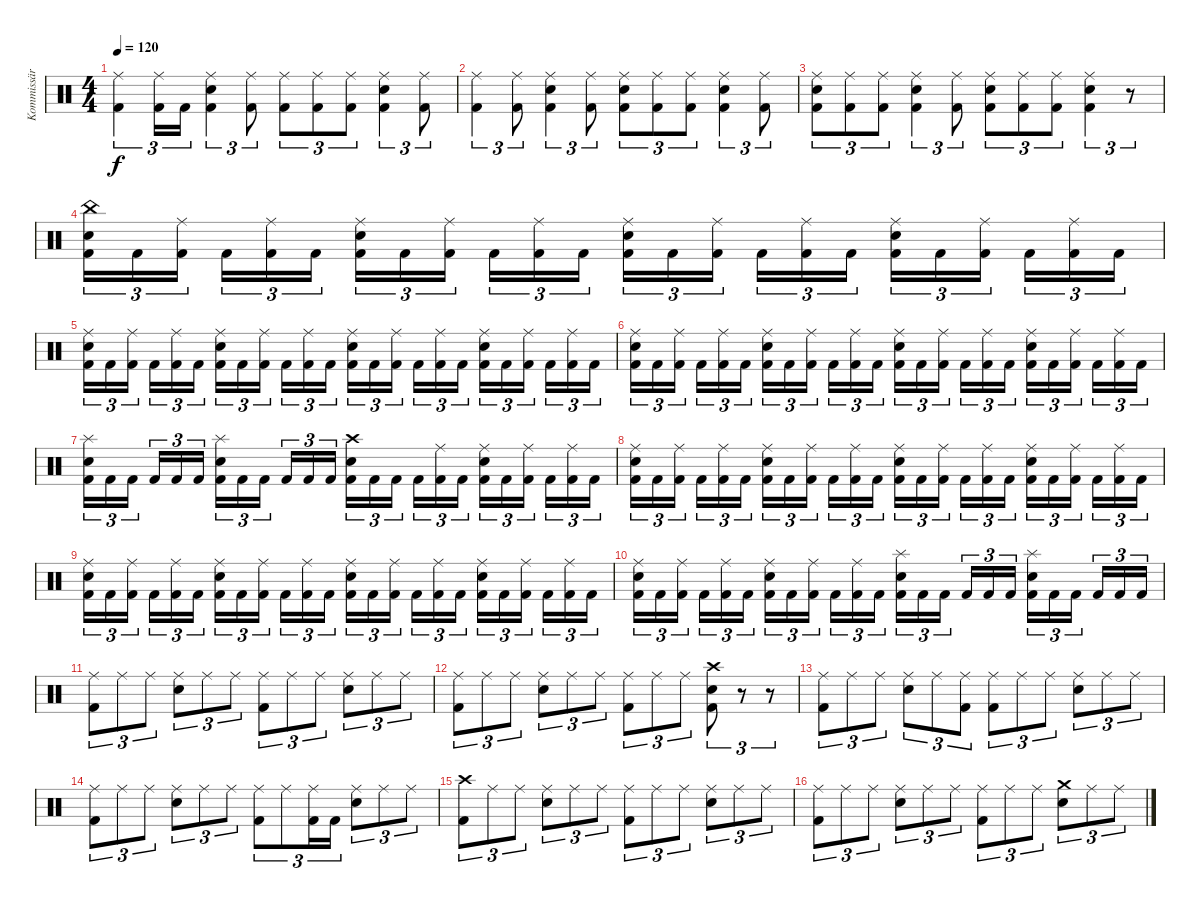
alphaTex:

\track ("Kommissär Ogrim" "Kommissär ") {instrument percussion}
\staff {score}
\articulation defaults
\ts (4 4)
\tempo 120
\clef neutral
\ks c
("Ride (middle)" "Kick (hit) 2").4{tu (3 2) dy f} ("Ride (middle)" "Kick (hit) 2").16{tu (3 2)} "Kick (hit) 2".16{tu (3 2)} ("Snare (hit) 2" "Ride (middle)" "Kick (hit) 2").4{tu (3 2)} ("Ride (middle)" "Kick (hit) 2").8{tu (3 2)} ("Ride (middle)" "Kick (hit) 2").8{tu (3 2)} ("Ride (middle)" "Kick (hit) 2").8{tu (3 2)} ("Ride (middle)" "Kick (hit) 2").8{tu (3 2)} ("Snare (hit) 2" "Ride (middle)" "Kick (hit) 2").4{tu (3 2)} ("Ride (middle)" "Kick (hit) 2").8{tu (3 2)} |
("Ride (middle)" "Kick (hit) 2").4{tu (3 2)} ("Ride (middle)" "Kick (hit) 2").8{tu (3 2)} ("Snare (hit) 2" "Ride (middle)" "Kick (hit) 2").4{tu (3 2)} ("Ride (middle)" "Kick (hit) 2").8{tu (3 2)} ("Snare (hit) 2" "Ride (middle)" "Kick (hit) 2").8{tu (3 2)} ("Ride (middle)" "Kick (hit) 2").8{tu (3 2)} ("Ride (middle)" "Kick (hit) 2").8{tu (3 2)} ("Snare (hit) 2" "Ride (middle)" "Kick (hit) 2").4{tu (3 2)} ("Ride (middle)" "Kick (hit) 2").8{tu (3 2)} |
("Snare (hit) 2" "Ride (middle)" "Kick (hit) 2").8{tu (3 2)} ("Ride (middle)" "Kick (hit) 2").8{tu (3 2)} ("Ride (middle)" "Kick (hit) 2").8{tu (3 2)} ("Snare (hit) 2" "Ride (middle)" "Kick (hit) 2").4{tu (3 2)} ("Ride (middle)" "Kick (hit) 2").8{tu (3 2)} ("Snare (hit) 2" "Ride (middle)" "Kick (hit) 2").8{tu (3 2)} ("Ride (middle)" "Kick (hit) 2").8{tu (3 2)} ("Ride (middle)" "Kick (hit) 2").8{tu (3 2)} ("Snare (hit) 2" "Ride (middle)" "Kick (hit) 2").4{tu (3 2)} r.8{tu (3 2)} |
("Snare (hit) 2" "China (hit)" "Kick (hit) 2").16{tu (3 2)} "Kick (hit) 2".16{tu (3 2)} ("Ride (middle)" "Kick (hit) 2").16{tu (3 2)} "Kick (hit) 2".16{tu (3 2)} ("Ride (middle)" "Kick (hit) 2").16{tu (3 2)} "Kick (hit) 2".16{tu (3 2)} ("Snare (hit) 2" "Ride (middle)" "Kick (hit) 2").16{tu (3 2)} "Kick (hit) 2".16{tu (3 2)} ("Ride (middle)" "Kick (hit) 2").16{tu (3 2)} "Kick (hit) 2".16{tu (3 2)} ("Ride (middle)" "Kick (hit) 2").16{tu (3 2)} "Kick (hit) 2".16{tu (3 2)} ("Snare (hit) 2" "Ride (middle)" "Kick (hit) 2").16{tu (3 2)} "Kick (hit) 2".16{tu (3 2)} ("Ride (middle)" "Kick (hit) 2").16{tu (3 2)} "Kick (hit) 2".16{tu (3 2)} ("Ride (middle)" "Kick (hit) 2").16{tu (3 2)} "Kick (hit) 2".16{tu (3 2)} ("Snare (hit) 2" "Ride (middle)" "Kick (hit) 2").16{tu (3 2)} "Kick (hit) 2".16{tu (3 2)} ("Ride (middle)" "Kick (hit) 2").16{tu (3 2)} "Kick (hit) 2".16{tu (3 2)} ("Ride (middle)" "Kick (hit) 2").16{tu (3 2)} "Kick (hit) 2".16{tu (3 2)} |
("Snare (hit) 2" "Ride (middle)" "Kick (hit) 2").16{tu (3 2)} "Kick (hit) 2".16{tu (3 2)} ("Ride (middle)" "Kick (hit) 2").16{tu (3 2)} "Kick (hit) 2".16{tu (3 2)} ("Ride (middle)" "Kick (hit) 2").16{tu (3 2)} "Kick (hit) 2".16{tu (3 2)} ("Snare (hit) 2" "Ride (middle)" "Kick (hit) 2").16{tu (3 2)} "Kick (hit) 2".16{tu (3 2)} ("Ride (middle)" "Kick (hit) 2").16{tu (3 2)} "Kick (hit) 2".16{tu (3 2)} ("Ride (middle)" "Kick (hit) 2").16{tu (3 2)} "Kick (hit) 2".16{tu (3 2)} ("Snare (hit) 2" "Ride (middle)" "Kick (hit) 2").16{tu (3 2)} "Kick (hit) 2".16{tu (3 2)} ("Ride (middle)" "Kick (hit) 2").16{tu (3 2)} "Kick (hit) 2".16{tu (3 2)} ("Ride (middle)" "Kick (hit) 2").16{tu (3 2)} "Kick (hit) 2".16{tu (3 2)} ("Snare (hit) 2" "Ride (middle)" "Kick (hit) 2").16{tu (3 2)} "Kick (hit) 2".16{tu (3 2)} ("Ride (middle)" "Kick (hit) 2").16{tu (3 2)} "Kick (hit) 2".16{tu (3 2)} ("Ride (middle)" "Kick (hit) 2").16{tu (3 2)} "Kick (hit) 2".16{tu (3 2)} |
("Snare (hit) 2" "Ride (middle)" "Kick (hit) 2").16{tu (3 2)} "Kick (hit) 2".16{tu (3 2)} ("Ride (middle)" "Kick (hit) 2").16{tu (3 2)} "Kick (hit) 2".16{tu (3 2)} ("Ride (middle)" "Kick (hit) 2").16{tu (3 2)} "Kick (hit) 2".16{tu (3 2)} ("Snare (hit) 2" "Ride (middle)" "Kick (hit) 2").16{tu (3 2)} "Kick (hit) 2".16{tu (3 2)} ("Ride (middle)" "Kick (hit) 2").16{tu (3 2)} "Kick (hit) 2".16{tu (3 2)} ("Ride (middle)" "Kick (hit) 2").16{tu (3 2)} "Kick (hit) 2".16{tu (3 2)} ("Snare (hit) 2" "Ride (middle)" "Kick (hit) 2").16{tu (3 2)} "Kick (hit) 2".16{tu (3 2)} ("Ride (middle)" "Kick (hit) 2").16{tu (3 2)} "Kick (hit) 2".16{tu (3 2)} ("Ride (middle)" "Kick (hit) 2").16{tu (3 2)} "Kick (hit) 2".16{tu (3 2)} ("Snare (hit) 2" "Ride (middle)" "Kick (hit) 2").16{tu (3 2)} "Kick (hit) 2".16{tu (3 2)} ("Ride (middle)" "Kick (hit) 2").16{tu (3 2)} "Kick (hit) 2".16{tu (3 2)} ("Ride (middle)" "Kick (hit) 2").16{tu (3 2)} "Kick (hit) 2".16{tu (3 2)} |
("Snare (hit) 2" "Splash (hit)" "Kick (hit) 2").16{tu (3 2)} "Kick (hit) 2".16{tu (3 2)} "Kick (hit) 2".16{tu (3 2)} "Kick (hit) 2".16{tu (3 2)} "Kick (hit) 2".16{tu (3 2)} "Kick (hit) 2".16{tu (3 2)} ("Snare (hit) 2" "Splash (hit)" "Kick (hit) 2").16{tu (3 2)} "Kick (hit) 2".16{tu (3 2)} "Kick (hit) 2".16{tu (3 2)} "Kick (hit) 2".16{tu (3 2)} "Kick (hit) 2".16{tu (3 2)} "Kick (hit) 2".16{tu (3 2)} ("Snare (hit) 2" "Crash high (hit)" "Kick (hit) 2").16{tu (3 2)} "Kick (hit) 2".16{tu (3 2)} "Kick (hit) 2".16{tu (3 2)} "Kick (hit) 2".16{tu (3 2)} ("Ride (middle)" "Kick (hit) 2").16{tu (3 2)} "Kick (hit) 2".16{tu (3 2)} ("Snare (hit) 2" "Ride (middle)" "Kick (hit) 2").16{tu (3 2)} "Kick (hit) 2".16{tu (3 2)} ("Ride (middle)" "Kick (hit) 2").16{tu (3 2)} "Kick (hit) 2".16{tu (3 2)} ("Ride (middle)" "Kick (hit) 2").16{tu (3 2)} "Kick (hit) 2".16{tu (3 2)} |
("Snare (hit) 2" "Ride (middle)" "Kick (hit) 2").16{tu (3 2)} "Kick (hit) 2".16{tu (3 2)} ("Ride (middle)" "Kick (hit) 2").16{tu (3 2)} "Kick (hit) 2".16{tu (3 2)} ("Ride (middle)" "Kick (hit) 2").16{tu (3 2)} "Kick (hit) 2".16{tu (3 2)} ("Snare (hit) 2" "Ride (middle)" "Kick (hit) 2").16{tu (3 2)} "Kick (hit) 2".16{tu (3 2)} ("Ride (middle)" "Kick (hit) 2").16{tu (3 2)} "Kick (hit) 2".16{tu (3 2)} ("Ride (middle)" "Kick (hit) 2").16{tu (3 2)} "Kick (hit) 2".16{tu (3 2)} ("Snare (hit) 2" "Ride (middle)" "Kick (hit) 2").16{tu (3 2)} "Kick (hit) 2".16{tu (3 2)} ("Ride (middle)" "Kick (hit) 2").16{tu (3 2)} "Kick (hit) 2".16{tu (3 2)} ("Ride (middle)" "Kick (hit) 2").16{tu (3 2)} "Kick (hit) 2".16{tu (3 2)} ("Snare (hit) 2" "Ride (middle)" "Kick (hit) 2").16{tu (3 2)} "Kick (hit) 2".16{tu (3 2)} ("Ride (middle)" "Kick (hit) 2").16{tu (3 2)} "Kick (hit) 2".16{tu (3 2)} ("Ride (middle)" "Kick (hit) 2").16{tu (3 2)} "Kick (hit) 2".16{tu (3 2)} |
("Snare (hit) 2" "Ride (middle)" "Kick (hit) 2").16{tu (3 2)} "Kick (hit) 2".16{tu (3 2)} ("Ride (middle)" "Kick (hit) 2").16{tu (3 2)} "Kick (hit) 2".16{tu (3 2)} ("Ride (middle)" "Kick (hit) 2").16{tu (3 2)} "Kick (hit) 2".16{tu (3 2)} ("Snare (hit) 2" "Ride (middle)" "Kick (hit) 2").16{tu (3 2)} "Kick (hit) 2".16{tu (3 2)} ("Ride (middle)" "Kick (hit) 2").16{tu (3 2)} "Kick (hit) 2".16{tu (3 2)} ("Ride (middle)" "Kick (hit) 2").16{tu (3 2)} "Kick (hit) 2".16{tu (3 2)} ("Snare (hit) 2" "Ride (middle)" "Kick (hit) 2").16{tu (3 2)} "Kick (hit) 2".16{tu (3 2)} ("Ride (middle)" "Kick (hit) 2").16{tu (3 2)} "Kick (hit) 2".16{tu (3 2)} ("Ride (middle)" "Kick (hit) 2").16{tu (3 2)} "Kick (hit) 2".16{tu (3 2)} ("Snare (hit) 2" "Ride (middle)" "Kick (hit) 2").16{tu (3 2)} "Kick (hit) 2".16{tu (3 2)} ("Ride (middle)" "Kick (hit) 2").16{tu (3 2)} "Kick (hit) 2".16{tu (3 2)} ("Ride (middle)" "Kick (hit) 2").16{tu (3 2)} "Kick (hit) 2".16{tu (3 2)} |
("Snare (hit) 2" "Ride (middle)" "Kick (hit) 2").16{tu (3 2)} "Kick (hit) 2".16{tu (3 2)} ("Ride (middle)" "Kick (hit) 2").16{tu (3 2)} "Kick (hit) 2".16{tu (3 2)} ("Ride (middle)" "Kick (hit) 2").16{tu (3 2)} "Kick (hit) 2".16{tu (3 2)} ("Snare (hit) 2" "Ride (middle)" "Kick (hit) 2").16{tu (3 2)} "Kick (hit) 2".16{tu (3 2)} ("Ride (middle)" "Kick (hit) 2").16{tu (3 2)} "Kick (hit) 2".16{tu (3 2)} ("Ride (middle)" "Kick (hit) 2").16{tu (3 2)} "Kick (hit) 2".16{tu (3 2)} ("Snare (hit) 2" "Splash (hit)" "Kick (hit) 2").16{tu (3 2)} "Kick (hit) 2".16{tu (3 2)} "Kick (hit) 2".16{tu (3 2)} "Kick (hit) 2".16{tu (3 2)} "Kick (hit) 2".16{tu (3 2)} "Kick (hit) 2".16{tu (3 2)} ("Snare (hit) 2" "Splash (hit)" "Kick (hit) 2").16{tu (3 2)} "Kick (hit) 2".16{tu (3 2)} "Kick (hit) 2".16{tu (3 2)} "Kick (hit) 2".16{tu (3 2)} "Kick (hit) 2".16{tu (3 2)} "Kick (hit) 2".16{tu (3 2)} |
("Ride (middle)" "Kick (hit) 2").8{tu (3 2)} "Ride (middle)".8{tu (3 2)} "Ride (middle)".8{tu (3 2)} ("Snare (hit) 2" "Ride (middle)").8{tu (3 2)} "Ride (middle)".8{tu (3 2)} "Ride (middle)".8{tu (3 2)} ("Ride (middle)" "Kick (hit) 2").8{tu (3 2)} "Ride (middle)".8{tu (3 2)} "Ride (middle)".8{tu (3 2)} ("Snare (hit) 2" "Ride (middle)").8{tu (3 2)} "Ride (middle)".8{tu (3 2)} "Ride (middle)".8{tu (3 2)} |
("Ride (middle)" "Kick (hit) 2").8{tu (3 2)} "Ride (middle)".8{tu (3 2)} "Ride (middle)".8{tu (3 2)} ("Snare (hit) 2" "Ride (middle)").8{tu (3 2)} "Ride (middle)".8{tu (3 2)} "Ride (middle)".8{tu (3 2)} ("Ride (middle)" "Kick (hit) 2").8{tu (3 2)} "Ride (middle)".8{tu (3 2)} "Ride (middle)".8{tu (3 2)} ("Snare (hit) 2" "Crash high (hit)" "Kick (hit) 2").8{tu (3 2)} r.8{tu (3 2)} r.8{tu (3 2)} |
("Ride (middle)" "Kick (hit) 2").8{tu (3 2)} "Ride (middle)".8{tu (3 2)} "Ride (middle)".8{tu (3 2)} ("Snare (hit) 2" "Ride (middle)").8{tu (3 2)} "Ride (middle)".8{tu (3 2)} ("Ride (middle)" "Kick (hit) 2").8{tu (3 2)} ("Ride (middle)" "Kick (hit) 2").8{tu (3 2)} "Ride (middle)".8{tu (3 2)} "Ride (middle)".8{tu (3 2)} ("Snare (hit) 2" "Ride (middle)").8{tu (3 2)} "Ride (middle)".8{tu (3 2)} "Ride (middle)".8{tu (3 2)} |
("Ride (middle)" "Kick (hit) 2").8{tu (3 2)} "Ride (middle)".8{tu (3 2)} "Ride (middle)".8{tu (3 2)} ("Snare (hit) 2" "Ride (middle)").8{tu (3 2)} "Ride (middle)".8{tu (3 2)} "Ride (middle)".8{tu (3 2)} ("Ride (middle)" "Kick (hit) 2").8{tu (3 2)} "Ride (middle)".8{tu (3 2)} ("Ride (middle)" "Kick (hit) 2").16{tu (3 2)} "Kick (hit) 2".16{tu (3 2)} ("Snare (hit) 2" "Ride (middle)").8{tu (3 2)} "Ride (middle)".8{tu (3 2)} "Ride (middle)".8{tu (3 2)} |
("Crash high (hit)" "Kick (hit) 2").8{tu (3 2)} "Ride (middle)".8{tu (3 2)} "Ride (middle)".8{tu (3 2)} ("Snare (hit) 2" "Ride (middle)").8{tu (3 2)} "Ride (middle)".8{tu (3 2)} "Ride (middle)".8{tu (3 2)} ("Ride (middle)" "Kick (hit) 2").8{tu (3 2)} "Ride (middle)".8{tu (3 2)} "Ride (middle)".8{tu (3 2)} ("Snare (hit) 2" "Ride (middle)").8{tu (3 2)} "Ride (middle)".8{tu (3 2)} "Ride (middle)".8{tu (3 2)} |
("Ride (middle)" "Kick (hit) 2").8{tu (3 2)} "Ride (middle)".8{tu (3 2)} "Ride (middle)".8{tu (3 2)} ("Snare (hit) 2" "Ride (middle)").8{tu (3 2)} "Ride (middle)".8{tu (3 2)} "Ride (middle)".8{tu (3 2)} ("Ride (middle)" "Kick (hit) 2").8{tu (3 2)} "Ride (middle)".8{tu (3 2)} "Ride (middle)".8{tu (3 2)} ("Snare (hit) 2" "Crash medium (hit)").8{tu (3 2)} "Ride (middle)".8{tu (3 2)} "Ride (middle)".8{tu (3 2)}
